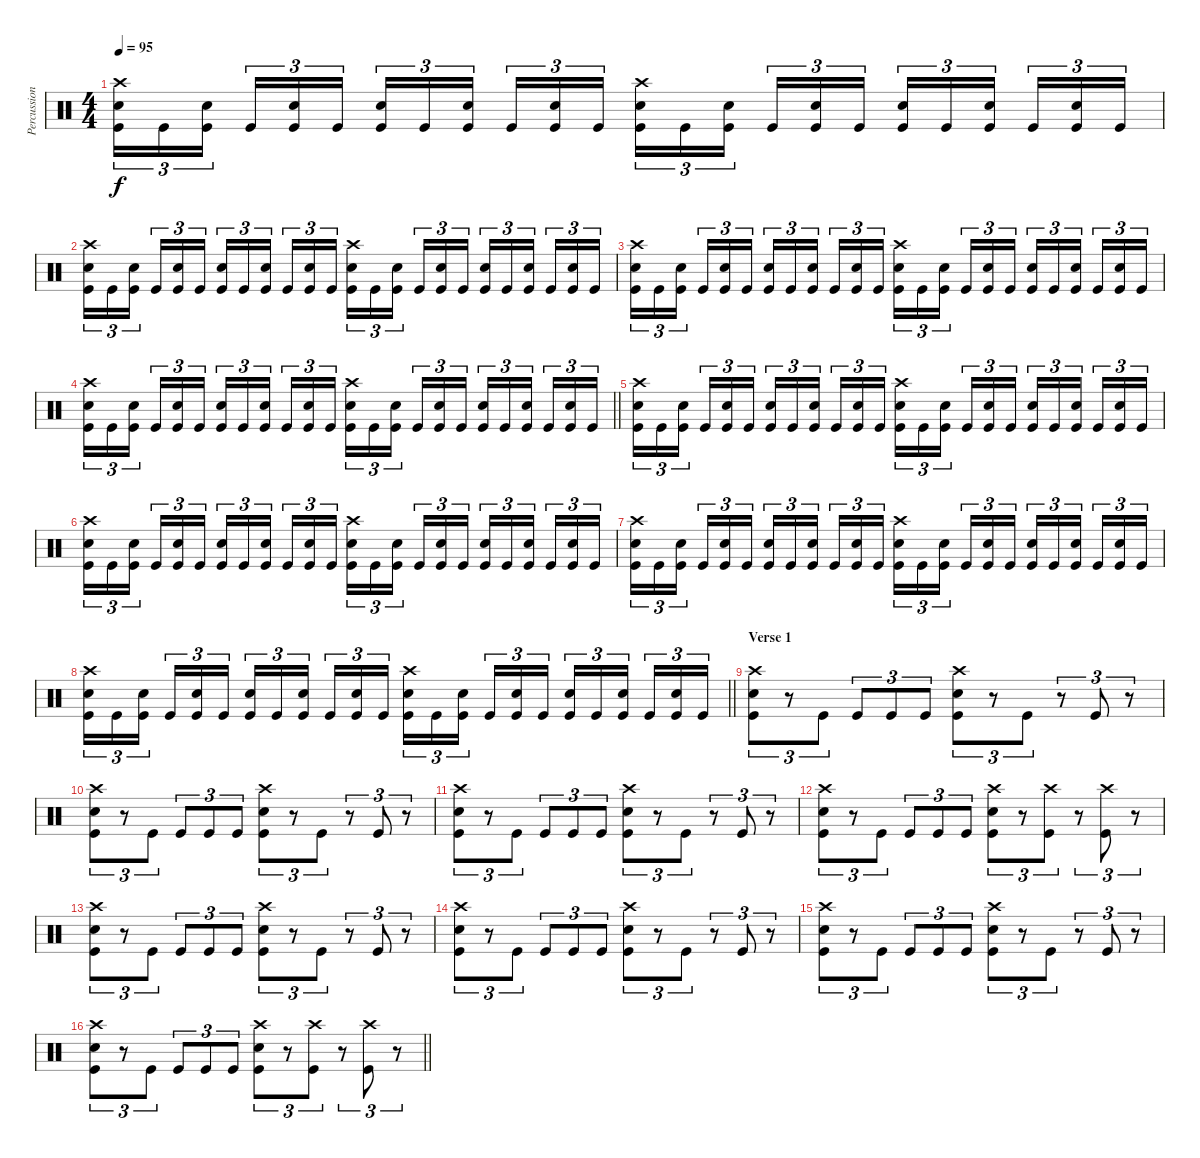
\track ("Percussion" "Percussion") {instrument percussion}
\staff {score}
\articulation defaults
\ts (4 4)
\tempo 95
\clef neutral
\ks c
("Crash high (hit)" "Snare (hit) 2" "Kick (hit)").16{tu (3 2) dy f} "Kick (hit)".16{tu (3 2)} ("Snare (hit) 2" "Kick (hit)").16{tu (3 2) beam splitsecondary} "Kick (hit)".16{tu (3 2)} ("Snare (hit) 2" "Kick (hit)").16{tu (3 2)} "Kick (hit)".16{tu (3 2)} ("Snare (hit) 2" "Kick (hit)").16{tu (3 2)} "Kick (hit)".16{tu (3 2)} ("Snare (hit) 2" "Kick (hit)").16{tu (3 2) beam splitsecondary} "Kick (hit)".16{tu (3 2)} ("Snare (hit) 2" "Kick (hit)").16{tu (3 2)} "Kick (hit)".16{tu (3 2)} ("Crash high (hit)" "Snare (hit) 2" "Kick (hit)").16{tu (3 2)} "Kick (hit)".16{tu (3 2)} ("Snare (hit) 2" "Kick (hit)").16{tu (3 2) beam splitsecondary} "Kick (hit)".16{tu (3 2)} ("Snare (hit) 2" "Kick (hit)").16{tu (3 2)} "Kick (hit)".16{tu (3 2)} ("Snare (hit) 2" "Kick (hit)").16{tu (3 2)} "Kick (hit)".16{tu (3 2)} ("Snare (hit) 2" "Kick (hit)").16{tu (3 2) beam splitsecondary} "Kick (hit)".16{tu (3 2)} ("Snare (hit) 2" "Kick (hit)").16{tu (3 2)} "Kick (hit)".16{tu (3 2)} |
("Crash high (hit)" "Snare (hit) 2" "Kick (hit)").16{tu (3 2)} "Kick (hit)".16{tu (3 2)} ("Snare (hit) 2" "Kick (hit)").16{tu (3 2) beam splitsecondary} "Kick (hit)".16{tu (3 2)} ("Snare (hit) 2" "Kick (hit)").16{tu (3 2)} "Kick (hit)".16{tu (3 2)} ("Snare (hit) 2" "Kick (hit)").16{tu (3 2)} "Kick (hit)".16{tu (3 2)} ("Snare (hit) 2" "Kick (hit)").16{tu (3 2) beam splitsecondary} "Kick (hit)".16{tu (3 2)} ("Snare (hit) 2" "Kick (hit)").16{tu (3 2)} "Kick (hit)".16{tu (3 2)} ("Crash high (hit)" "Snare (hit) 2" "Kick (hit)").16{tu (3 2)} "Kick (hit)".16{tu (3 2)} ("Snare (hit) 2" "Kick (hit)").16{tu (3 2) beam splitsecondary} "Kick (hit)".16{tu (3 2)} ("Snare (hit) 2" "Kick (hit)").16{tu (3 2)} "Kick (hit)".16{tu (3 2)} ("Snare (hit) 2" "Kick (hit)").16{tu (3 2)} "Kick (hit)".16{tu (3 2)} ("Snare (hit) 2" "Kick (hit)").16{tu (3 2) beam splitsecondary} "Kick (hit)".16{tu (3 2)} ("Snare (hit) 2" "Kick (hit)").16{tu (3 2)} "Kick (hit)".16{tu (3 2)} |
("Crash high (hit)" "Snare (hit) 2" "Kick (hit)").16{tu (3 2)} "Kick (hit)".16{tu (3 2)} ("Snare (hit) 2" "Kick (hit)").16{tu (3 2) beam splitsecondary} "Kick (hit)".16{tu (3 2)} ("Snare (hit) 2" "Kick (hit)").16{tu (3 2)} "Kick (hit)".16{tu (3 2)} ("Snare (hit) 2" "Kick (hit)").16{tu (3 2)} "Kick (hit)".16{tu (3 2)} ("Snare (hit) 2" "Kick (hit)").16{tu (3 2) beam splitsecondary} "Kick (hit)".16{tu (3 2)} ("Snare (hit) 2" "Kick (hit)").16{tu (3 2)} "Kick (hit)".16{tu (3 2)} ("Crash high (hit)" "Snare (hit) 2" "Kick (hit)").16{tu (3 2)} "Kick (hit)".16{tu (3 2)} ("Snare (hit) 2" "Kick (hit)").16{tu (3 2) beam splitsecondary} "Kick (hit)".16{tu (3 2)} ("Snare (hit) 2" "Kick (hit)").16{tu (3 2)} "Kick (hit)".16{tu (3 2)} ("Snare (hit) 2" "Kick (hit)").16{tu (3 2)} "Kick (hit)".16{tu (3 2)} ("Snare (hit) 2" "Kick (hit)").16{tu (3 2) beam splitsecondary} "Kick (hit)".16{tu (3 2)} ("Snare (hit) 2" "Kick (hit)").16{tu (3 2)} "Kick (hit)".16{tu (3 2)} |
\barLineRight lightlight
("Crash high (hit)" "Snare (hit) 2" "Kick (hit)").16{tu (3 2)} "Kick (hit)".16{tu (3 2)} ("Snare (hit) 2" "Kick (hit)").16{tu (3 2) beam splitsecondary} "Kick (hit)".16{tu (3 2)} ("Snare (hit) 2" "Kick (hit)").16{tu (3 2)} "Kick (hit)".16{tu (3 2)} ("Snare (hit) 2" "Kick (hit)").16{tu (3 2)} "Kick (hit)".16{tu (3 2)} ("Snare (hit) 2" "Kick (hit)").16{tu (3 2) beam splitsecondary} "Kick (hit)".16{tu (3 2)} ("Snare (hit) 2" "Kick (hit)").16{tu (3 2)} "Kick (hit)".16{tu (3 2)} ("Crash high (hit)" "Snare (hit) 2" "Kick (hit)").16{tu (3 2)} "Kick (hit)".16{tu (3 2)} ("Snare (hit) 2" "Kick (hit)").16{tu (3 2) beam splitsecondary} "Kick (hit)".16{tu (3 2)} ("Snare (hit) 2" "Kick (hit)").16{tu (3 2)} "Kick (hit)".16{tu (3 2)} ("Snare (hit) 2" "Kick (hit)").16{tu (3 2)} "Kick (hit)".16{tu (3 2)} ("Snare (hit) 2" "Kick (hit)").16{tu (3 2) beam splitsecondary} "Kick (hit)".16{tu (3 2)} ("Snare (hit) 2" "Kick (hit)").16{tu (3 2)} "Kick (hit)".16{tu (3 2)} |
("Crash high (hit)" "Snare (hit) 2" "Kick (hit)").16{tu (3 2)} "Kick (hit)".16{tu (3 2)} ("Snare (hit) 2" "Kick (hit)").16{tu (3 2) beam splitsecondary} "Kick (hit)".16{tu (3 2)} ("Snare (hit) 2" "Kick (hit)").16{tu (3 2)} "Kick (hit)".16{tu (3 2)} ("Snare (hit) 2" "Kick (hit)").16{tu (3 2)} "Kick (hit)".16{tu (3 2)} ("Snare (hit) 2" "Kick (hit)").16{tu (3 2) beam splitsecondary} "Kick (hit)".16{tu (3 2)} ("Snare (hit) 2" "Kick (hit)").16{tu (3 2)} "Kick (hit)".16{tu (3 2)} ("Crash high (hit)" "Snare (hit) 2" "Kick (hit)").16{tu (3 2)} "Kick (hit)".16{tu (3 2)} ("Snare (hit) 2" "Kick (hit)").16{tu (3 2) beam splitsecondary} "Kick (hit)".16{tu (3 2)} ("Snare (hit) 2" "Kick (hit)").16{tu (3 2)} "Kick (hit)".16{tu (3 2)} ("Snare (hit) 2" "Kick (hit)").16{tu (3 2)} "Kick (hit)".16{tu (3 2)} ("Snare (hit) 2" "Kick (hit)").16{tu (3 2) beam splitsecondary} "Kick (hit)".16{tu (3 2)} ("Snare (hit) 2" "Kick (hit)").16{tu (3 2)} "Kick (hit)".16{tu (3 2)} |
("Crash high (hit)" "Snare (hit) 2" "Kick (hit)").16{tu (3 2)} "Kick (hit)".16{tu (3 2)} ("Snare (hit) 2" "Kick (hit)").16{tu (3 2) beam splitsecondary} "Kick (hit)".16{tu (3 2)} ("Snare (hit) 2" "Kick (hit)").16{tu (3 2)} "Kick (hit)".16{tu (3 2)} ("Snare (hit) 2" "Kick (hit)").16{tu (3 2)} "Kick (hit)".16{tu (3 2)} ("Snare (hit) 2" "Kick (hit)").16{tu (3 2) beam splitsecondary} "Kick (hit)".16{tu (3 2)} ("Snare (hit) 2" "Kick (hit)").16{tu (3 2)} "Kick (hit)".16{tu (3 2)} ("Crash high (hit)" "Snare (hit) 2" "Kick (hit)").16{tu (3 2)} "Kick (hit)".16{tu (3 2)} ("Snare (hit) 2" "Kick (hit)").16{tu (3 2) beam splitsecondary} "Kick (hit)".16{tu (3 2)} ("Snare (hit) 2" "Kick (hit)").16{tu (3 2)} "Kick (hit)".16{tu (3 2)} ("Snare (hit) 2" "Kick (hit)").16{tu (3 2)} "Kick (hit)".16{tu (3 2)} ("Snare (hit) 2" "Kick (hit)").16{tu (3 2) beam splitsecondary} "Kick (hit)".16{tu (3 2)} ("Snare (hit) 2" "Kick (hit)").16{tu (3 2)} "Kick (hit)".16{tu (3 2)} |
("Crash high (hit)" "Snare (hit) 2" "Kick (hit)").16{tu (3 2)} "Kick (hit)".16{tu (3 2)} ("Snare (hit) 2" "Kick (hit)").16{tu (3 2) beam splitsecondary} "Kick (hit)".16{tu (3 2)} ("Snare (hit) 2" "Kick (hit)").16{tu (3 2)} "Kick (hit)".16{tu (3 2)} ("Snare (hit) 2" "Kick (hit)").16{tu (3 2)} "Kick (hit)".16{tu (3 2)} ("Snare (hit) 2" "Kick (hit)").16{tu (3 2) beam splitsecondary} "Kick (hit)".16{tu (3 2)} ("Snare (hit) 2" "Kick (hit)").16{tu (3 2)} "Kick (hit)".16{tu (3 2)} ("Crash high (hit)" "Snare (hit) 2" "Kick (hit)").16{tu (3 2)} "Kick (hit)".16{tu (3 2)} ("Snare (hit) 2" "Kick (hit)").16{tu (3 2) beam splitsecondary} "Kick (hit)".16{tu (3 2)} ("Snare (hit) 2" "Kick (hit)").16{tu (3 2)} "Kick (hit)".16{tu (3 2)} ("Snare (hit) 2" "Kick (hit)").16{tu (3 2)} "Kick (hit)".16{tu (3 2)} ("Snare (hit) 2" "Kick (hit)").16{tu (3 2) beam splitsecondary} "Kick (hit)".16{tu (3 2)} ("Snare (hit) 2" "Kick (hit)").16{tu (3 2)} "Kick (hit)".16{tu (3 2)} |
\barLineRight lightlight
("Crash high (hit)" "Snare (hit) 2" "Kick (hit)").16{tu (3 2)} "Kick (hit)".16{tu (3 2)} ("Snare (hit) 2" "Kick (hit)").16{tu (3 2) beam splitsecondary} "Kick (hit)".16{tu (3 2)} ("Snare (hit) 2" "Kick (hit)").16{tu (3 2)} "Kick (hit)".16{tu (3 2)} ("Snare (hit) 2" "Kick (hit)").16{tu (3 2)} "Kick (hit)".16{tu (3 2)} ("Snare (hit) 2" "Kick (hit)").16{tu (3 2) beam splitsecondary} "Kick (hit)".16{tu (3 2)} ("Snare (hit) 2" "Kick (hit)").16{tu (3 2)} "Kick (hit)".16{tu (3 2)} ("Crash high (hit)" "Snare (hit) 2" "Kick (hit)").16{tu (3 2)} "Kick (hit)".16{tu (3 2)} ("Snare (hit) 2" "Kick (hit)").16{tu (3 2) beam splitsecondary} "Kick (hit)".16{tu (3 2)} ("Snare (hit) 2" "Kick (hit)").16{tu (3 2)} "Kick (hit)".16{tu (3 2)} ("Snare (hit) 2" "Kick (hit)").16{tu (3 2)} "Kick (hit)".16{tu (3 2)} ("Snare (hit) 2" "Kick (hit)").16{tu (3 2) beam splitsecondary} "Kick (hit)".16{tu (3 2)} ("Snare (hit) 2" "Kick (hit)").16{tu (3 2)} "Kick (hit)".16{tu (3 2)} |
\section ("" "Verse 1")
("Crash high (hit)" "Snare (hit) 2" "Kick (hit)").8{tu (3 2)} r.8{tu (3 2)} "Kick (hit)".8{tu (3 2)} "Kick (hit)".8{tu (3 2)} "Kick (hit)".8{tu (3 2)} "Kick (hit)".8{tu (3 2)} ("Crash high (hit)" "Snare (hit) 2" "Kick (hit)").8{tu (3 2)} r.8{tu (3 2)} "Kick (hit)".8{tu (3 2)} r.8{tu (3 2)} "Kick (hit)".8{tu (3 2)} r.8{tu (3 2)} |
("Crash high (hit)" "Snare (hit) 2" "Kick (hit)").8{tu (3 2)} r.8{tu (3 2)} "Kick (hit)".8{tu (3 2)} "Kick (hit)".8{tu (3 2)} "Kick (hit)".8{tu (3 2)} "Kick (hit)".8{tu (3 2)} ("Crash high (hit)" "Snare (hit) 2" "Kick (hit)").8{tu (3 2)} r.8{tu (3 2)} "Kick (hit)".8{tu (3 2)} r.8{tu (3 2)} "Kick (hit)".8{tu (3 2)} r.8{tu (3 2)} |
("Crash high (hit)" "Snare (hit) 2" "Kick (hit)").8{tu (3 2)} r.8{tu (3 2)} "Kick (hit)".8{tu (3 2)} "Kick (hit)".8{tu (3 2)} "Kick (hit)".8{tu (3 2)} "Kick (hit)".8{tu (3 2)} ("Crash high (hit)" "Snare (hit) 2" "Kick (hit)").8{tu (3 2)} r.8{tu (3 2)} "Kick (hit)".8{tu (3 2)} r.8{tu (3 2)} "Kick (hit)".8{tu (3 2)} r.8{tu (3 2)} |
("Crash high (hit)" "Snare (hit) 2" "Kick (hit)").8{tu (3 2)} r.8{tu (3 2)} "Kick (hit)".8{tu (3 2)} "Kick (hit)".8{tu (3 2)} "Kick (hit)".8{tu (3 2)} "Kick (hit)".8{tu (3 2)} ("Crash high (hit)" "Snare (hit) 2" "Kick (hit)").8{tu (3 2)} r.8{tu (3 2)} ("Crash high (hit)" "Kick (hit)").8{tu (3 2)} r.8{tu (3 2)} ("Crash high (hit)" "Kick (hit)").8{tu (3 2)} r.8{tu (3 2)} |
("Crash high (hit)" "Snare (hit) 2" "Kick (hit)").8{tu (3 2)} r.8{tu (3 2)} "Kick (hit)".8{tu (3 2)} "Kick (hit)".8{tu (3 2)} "Kick (hit)".8{tu (3 2)} "Kick (hit)".8{tu (3 2)} ("Crash high (hit)" "Snare (hit) 2" "Kick (hit)").8{tu (3 2)} r.8{tu (3 2)} "Kick (hit)".8{tu (3 2)} r.8{tu (3 2)} "Kick (hit)".8{tu (3 2)} r.8{tu (3 2)} |
("Crash high (hit)" "Snare (hit) 2" "Kick (hit)").8{tu (3 2)} r.8{tu (3 2)} "Kick (hit)".8{tu (3 2)} "Kick (hit)".8{tu (3 2)} "Kick (hit)".8{tu (3 2)} "Kick (hit)".8{tu (3 2)} ("Crash high (hit)" "Snare (hit) 2" "Kick (hit)").8{tu (3 2)} r.8{tu (3 2)} "Kick (hit)".8{tu (3 2)} r.8{tu (3 2)} "Kick (hit)".8{tu (3 2)} r.8{tu (3 2)} |
("Crash high (hit)" "Snare (hit) 2" "Kick (hit)").8{tu (3 2)} r.8{tu (3 2)} "Kick (hit)".8{tu (3 2)} "Kick (hit)".8{tu (3 2)} "Kick (hit)".8{tu (3 2)} "Kick (hit)".8{tu (3 2)} ("Crash high (hit)" "Snare (hit) 2" "Kick (hit)").8{tu (3 2)} r.8{tu (3 2)} "Kick (hit)".8{tu (3 2)} r.8{tu (3 2)} "Kick (hit)".8{tu (3 2)} r.8{tu (3 2)} |
\barLineRight lightlight
("Crash high (hit)" "Snare (hit) 2" "Kick (hit)").8{tu (3 2)} r.8{tu (3 2)} "Kick (hit)".8{tu (3 2)} "Kick (hit)".8{tu (3 2)} "Kick (hit)".8{tu (3 2)} "Kick (hit)".8{tu (3 2)} ("Crash high (hit)" "Snare (hit) 2" "Kick (hit)").8{tu (3 2)} r.8{tu (3 2)} ("Crash high (hit)" "Kick (hit)").8{tu (3 2)} r.8{tu (3 2)} ("Crash high (hit)" "Kick (hit)").8{tu (3 2)} r.8{tu (3 2)}
